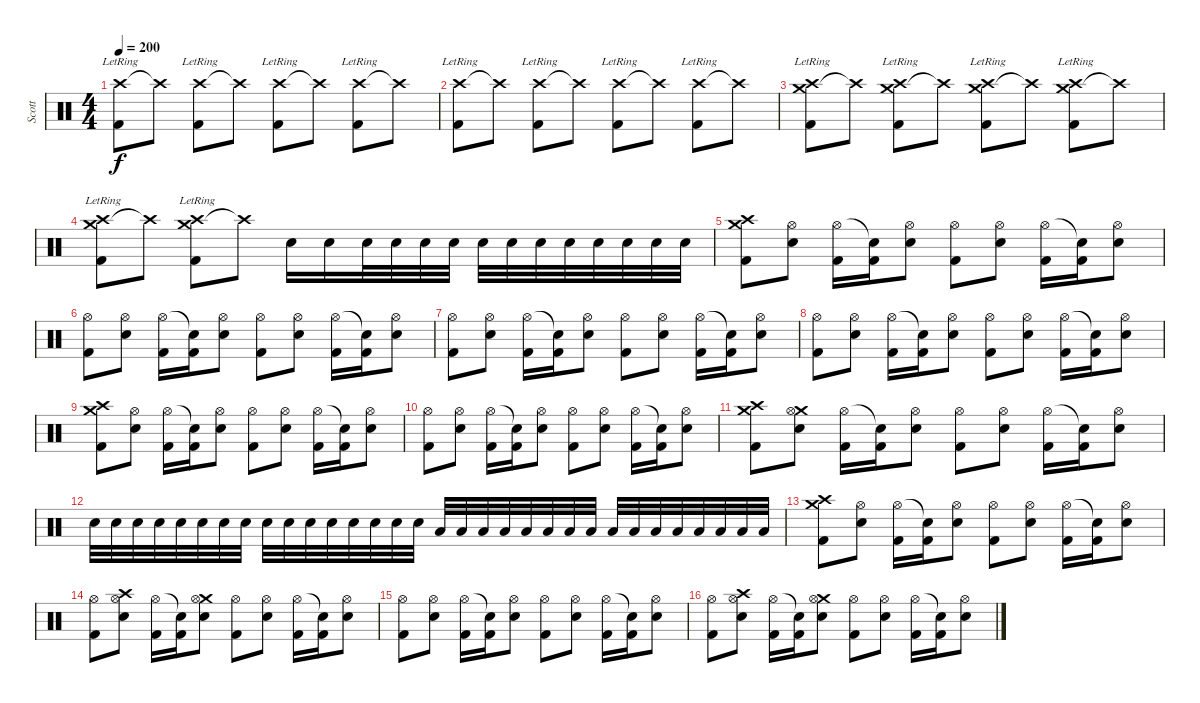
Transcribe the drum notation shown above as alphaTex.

\track ("Scott" "Scott") {instrument percussion}
\staff {score}
\articulation defaults
\ts (4 4)
\tempo 200
\clef neutral
\ks c
("Crash high (hit)"{lr} "Kick (hit) 2").8{dy f} "Crash high (hit)"{t}.8 ("Crash high (hit)"{lr} "Kick (hit) 2").8 "Crash high (hit)"{t}.8 ("Crash high (hit)"{lr} "Kick (hit) 2").8 "Crash high (hit)"{t}.8 ("Crash high (hit)"{lr} "Kick (hit) 2").8 "Crash high (hit)"{t}.8 |
("Crash high (hit)"{lr} "Kick (hit) 2").8 "Crash high (hit)"{t}.8 ("Crash high (hit)"{lr} "Kick (hit) 2").8 "Crash high (hit)"{t}.8 ("Crash high (hit)"{lr} "Kick (hit) 2").8 "Crash high (hit)"{t}.8 ("Crash high (hit)"{lr} "Kick (hit) 2").8 "Crash high (hit)"{t}.8 |
("Crash medium (hit)" "Crash high (hit)"{lr} "Kick (hit) 2").8 "Crash high (hit)"{t}.8 ("Crash medium (hit)" "Crash high (hit)"{lr} "Kick (hit) 2").8 "Crash high (hit)"{t}.8 ("Crash medium (hit)" "Crash high (hit)"{lr} "Kick (hit) 2").8 "Crash high (hit)"{t}.8 ("Crash medium (hit)" "Crash high (hit)"{lr} "Kick (hit) 2").8 "Crash high (hit)"{t}.8 |
("Crash medium (hit)" "Crash high (hit)"{lr} "Kick (hit) 2").8 "Crash high (hit)"{t}.8 ("Crash medium (hit)" "Crash high (hit)"{lr} "Kick (hit) 2").8 "Crash high (hit)"{t}.8 "Snare (hit) 2".16 "Snare (hit) 2".16 "Snare (hit) 2".32 "Snare (hit) 2".32 "Snare (hit) 2".32 "Snare (hit) 2".32 "Snare (hit) 2".32 "Snare (hit) 2".32 "Snare (hit) 2".32 "Snare (hit) 2".32 "Snare (hit) 2".32 "Snare (hit) 2".32 "Snare (hit) 2".32 "Snare (hit) 2".32 |
("Crash medium (hit)" "Crash high (hit)" "Kick (hit) 2").8 ("Hi-Hat (open)" "Snare (hit) 2").8 ("Hi-Hat (open)" "Kick (hit) 2").16 ("Snare (hit)"{t} "Kick (hit) 2").16 ("Hi-Hat (open)" "Snare (hit) 2").8 ("Hi-Hat (open)" "Kick (hit) 2").8 ("Hi-Hat (open)" "Snare (hit) 2").8 ("Hi-Hat (open)" "Kick (hit) 2").16 ("Snare (hit)"{t} "Kick (hit) 2").16 ("Hi-Hat (open)" "Snare (hit) 2").8 |
("Hi-Hat (open)" "Kick (hit) 2").8 ("Hi-Hat (open)" "Snare (hit) 2").8 ("Hi-Hat (open)" "Kick (hit) 2").16 ("Snare (hit)"{t} "Kick (hit) 2").16 ("Hi-Hat (open)" "Snare (hit) 2").8 ("Hi-Hat (open)" "Kick (hit) 2").8 ("Hi-Hat (open)" "Snare (hit) 2").8 ("Hi-Hat (open)" "Kick (hit) 2").16 ("Snare (hit)"{t} "Kick (hit) 2").16 ("Hi-Hat (open)" "Snare (hit) 2").8 |
("Hi-Hat (open)" "Kick (hit) 2").8 ("Hi-Hat (open)" "Snare (hit) 2").8 ("Hi-Hat (open)" "Kick (hit) 2").16 ("Snare (hit)"{t} "Kick (hit) 2").16 ("Hi-Hat (open)" "Snare (hit) 2").8 ("Hi-Hat (open)" "Kick (hit) 2").8 ("Hi-Hat (open)" "Snare (hit) 2").8 ("Hi-Hat (open)" "Kick (hit) 2").16 ("Snare (hit)"{t} "Kick (hit) 2").16 ("Hi-Hat (open)" "Snare (hit) 2").8 |
("Hi-Hat (open)" "Kick (hit) 2").8 ("Hi-Hat (open)" "Snare (hit) 2").8 ("Hi-Hat (open)" "Kick (hit) 2").16 ("Snare (hit)"{t} "Kick (hit) 2").16 ("Hi-Hat (open)" "Snare (hit) 2").8 ("Hi-Hat (open)" "Kick (hit) 2").8 ("Hi-Hat (open)" "Snare (hit) 2").8 ("Hi-Hat (open)" "Kick (hit) 2").16 ("Snare (hit)"{t} "Kick (hit) 2").16 ("Hi-Hat (open)" "Snare (hit) 2").8 |
("Crash medium (hit)" "Crash high (hit)" "Kick (hit) 2").8 ("Hi-Hat (open)" "Snare (hit) 2").8 ("Hi-Hat (open)" "Kick (hit) 2").16 ("Snare (hit)"{t} "Kick (hit) 2").16 ("Hi-Hat (open)" "Snare (hit) 2").8 ("Hi-Hat (open)" "Kick (hit) 2").8 ("Hi-Hat (open)" "Snare (hit) 2").8 ("Hi-Hat (open)" "Kick (hit) 2").16 ("Snare (hit)"{t} "Kick (hit) 2").16 ("Hi-Hat (open)" "Snare (hit) 2").8 |
("Hi-Hat (open)" "Kick (hit) 2").8 ("Hi-Hat (open)" "Snare (hit) 2").8 ("Hi-Hat (open)" "Kick (hit) 2").16 ("Snare (hit)"{t} "Kick (hit) 2").16 ("Hi-Hat (open)" "Snare (hit) 2").8 ("Hi-Hat (open)" "Kick (hit) 2").8 ("Hi-Hat (open)" "Snare (hit) 2").8 ("Hi-Hat (open)" "Kick (hit) 2").16 ("Snare (hit)"{t} "Kick (hit) 2").16 ("Hi-Hat (open)" "Snare (hit) 2").8 |
("Crash medium (hit)" "Crash high (hit)" "Kick (hit) 2").8 ("Crash medium (hit)" "Hi-Hat (open)" "Snare (hit) 2").8 ("Hi-Hat (open)" "Kick (hit) 2").16 ("Snare (hit)"{t} "Kick (hit) 2").16 ("Hi-Hat (open)" "Snare (hit) 2").8 ("Hi-Hat (open)" "Kick (hit) 2").8 ("Hi-Hat (open)" "Snare (hit) 2").8 ("Hi-Hat (open)" "Kick (hit) 2").16 ("Snare (hit)"{t} "Kick (hit) 2").16 ("Hi-Hat (open)" "Snare (hit) 2").8 |
"Snare (hit) 2".32 "Snare (hit) 2".32 "Snare (hit) 2".32 "Snare (hit) 2".32 "Snare (hit) 2".32 "Snare (hit) 2".32 "Snare (hit) 2".32 "Snare (hit) 2".32 "Snare (hit) 2".32 "Snare (hit) 2".32 "Snare (hit) 2".32 "Snare (hit) 2".32 "Snare (hit) 2".32 "Snare (hit) 2".32 "Snare (hit) 2".32 "Snare (hit) 2".32 "Low Tom (hit)".32 "Low Tom (hit)".32 "Low Tom (hit)".32 "Low Tom (hit)".32 "Low Tom (hit)".32 "Low Tom (hit)".32 "Low Tom (hit)".32 "Low Tom (hit)".32 "Low Tom (hit)".32 "Low Tom (hit)".32 "Low Tom (hit)".32 "Low Tom (hit)".32 "Low Tom (hit)".32 "Low Tom (hit)".32 "Low Tom (hit)".32 "Low Tom (hit)".32 |
("Crash medium (hit)" "Crash high (hit)" "Kick (hit) 2").8 ("Hi-Hat (open)" "Snare (hit) 2").8 ("Hi-Hat (open)" "Kick (hit) 2").16 ("Snare (hit)"{t} "Kick (hit) 2").16 ("Hi-Hat (open)" "Snare (hit) 2").8 ("Hi-Hat (open)" "Kick (hit) 2").8 ("Hi-Hat (open)" "Snare (hit) 2").8 ("Hi-Hat (open)" "Kick (hit) 2").16 ("Snare (hit)"{t} "Kick (hit) 2").16 ("Hi-Hat (open)" "Snare (hit) 2").8 |
("Hi-Hat (open)" "Kick (hit) 2").8 ("Crash high (hit)" "Hi-Hat (open)" "Snare (hit) 2").8 ("Hi-Hat (open)" "Kick (hit) 2").16 ("Snare (hit)"{t} "Kick (hit) 2").16 ("Crash medium (hit)" "Hi-Hat (open)" "Snare (hit) 2").8 ("Hi-Hat (open)" "Kick (hit) 2").8 ("Hi-Hat (open)" "Snare (hit) 2").8 ("Hi-Hat (open)" "Kick (hit) 2").16 ("Snare (hit)"{t} "Kick (hit) 2").16 ("Hi-Hat (open)" "Snare (hit) 2").8 |
("Hi-Hat (open)" "Kick (hit) 2").8 ("Hi-Hat (open)" "Snare (hit) 2").8 ("Hi-Hat (open)" "Kick (hit) 2").16 ("Snare (hit)"{t} "Kick (hit) 2").16 ("Hi-Hat (open)" "Snare (hit) 2").8 ("Hi-Hat (open)" "Kick (hit) 2").8 ("Hi-Hat (open)" "Snare (hit) 2").8 ("Hi-Hat (open)" "Kick (hit) 2").16 ("Snare (hit)"{t} "Kick (hit) 2").16 ("Hi-Hat (open)" "Snare (hit) 2").8 |
("Hi-Hat (open)" "Kick (hit) 2").8 ("Crash high (hit)" "Hi-Hat (open)" "Snare (hit) 2").8 ("Hi-Hat (open)" "Kick (hit) 2").16 ("Snare (hit)"{t} "Kick (hit) 2").16 ("Crash medium (hit)" "Hi-Hat (open)" "Snare (hit) 2").8 ("Hi-Hat (open)" "Kick (hit) 2").8 ("Hi-Hat (open)" "Snare (hit) 2").8 ("Hi-Hat (open)" "Kick (hit) 2").16 ("Snare (hit)"{t} "Kick (hit) 2").16 ("Hi-Hat (open)" "Snare (hit) 2").8
